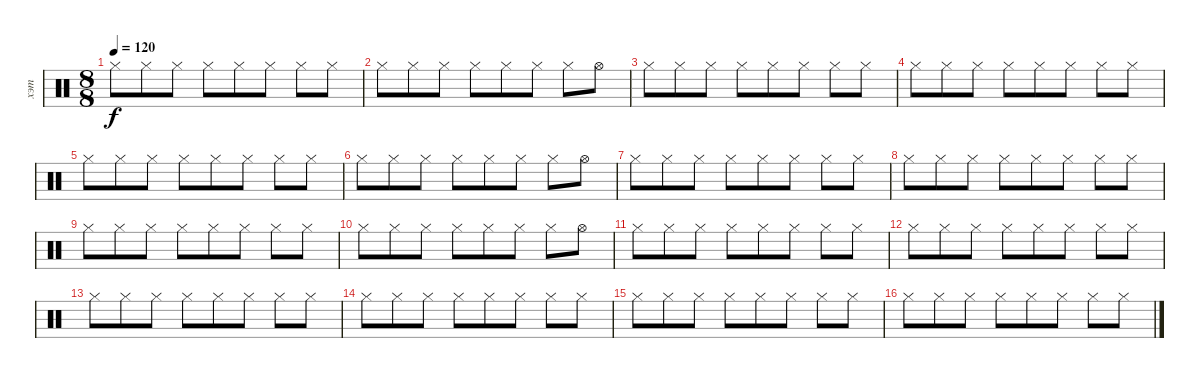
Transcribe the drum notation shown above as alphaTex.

\track ("хэт" "хэт") {instrument percussion}
\staff {score}
\articulation defaults
\ts (8 8)
\tempo 120
\clef neutral
\ks c "Hi-Hat (closed)".8{dy f} "Hi-Hat (closed)".8 "Hi-Hat (closed)".8 "Hi-Hat (closed)".8 "Hi-Hat (closed)".8 "Hi-Hat (closed)".8 "Hi-Hat (closed)".8 "Hi-Hat (closed)".8
|
"Hi-Hat (closed)".8 "Hi-Hat (closed)".8 "Hi-Hat (closed)".8 "Hi-Hat (closed)".8 "Hi-Hat (closed)".8 "Hi-Hat (closed)".8 "Hi-Hat (closed)".8 "Hi-Hat (open)".8 |
"Hi-Hat (closed)".8 "Hi-Hat (closed)".8 "Hi-Hat (closed)".8 "Hi-Hat (closed)".8 "Hi-Hat (closed)".8 "Hi-Hat (closed)".8 "Hi-Hat (closed)".8 "Hi-Hat (closed)".8 |
"Hi-Hat (closed)".8 "Hi-Hat (closed)".8 "Hi-Hat (closed)".8 "Hi-Hat (closed)".8 "Hi-Hat (closed)".8 "Hi-Hat (closed)".8 "Hi-Hat (closed)".8 "Hi-Hat (closed)".8 |
"Hi-Hat (closed)".8 "Hi-Hat (closed)".8 "Hi-Hat (closed)".8 "Hi-Hat (closed)".8 "Hi-Hat (closed)".8 "Hi-Hat (closed)".8 "Hi-Hat (closed)".8 "Hi-Hat (closed)".8 |
"Hi-Hat (closed)".8 "Hi-Hat (closed)".8 "Hi-Hat (closed)".8 "Hi-Hat (closed)".8 "Hi-Hat (closed)".8 "Hi-Hat (closed)".8 "Hi-Hat (closed)".8 "Hi-Hat (open)".8 |
"Hi-Hat (closed)".8 "Hi-Hat (closed)".8 "Hi-Hat (closed)".8 "Hi-Hat (closed)".8 "Hi-Hat (closed)".8 "Hi-Hat (closed)".8 "Hi-Hat (closed)".8 "Hi-Hat (closed)".8 |
"Hi-Hat (closed)".8 "Hi-Hat (closed)".8 "Hi-Hat (closed)".8 "Hi-Hat (closed)".8 "Hi-Hat (closed)".8 "Hi-Hat (closed)".8 "Hi-Hat (closed)".8 "Hi-Hat (closed)".8 |
"Hi-Hat (closed)".8 "Hi-Hat (closed)".8 "Hi-Hat (closed)".8 "Hi-Hat (closed)".8 "Hi-Hat (closed)".8 "Hi-Hat (closed)".8 "Hi-Hat (closed)".8 "Hi-Hat (closed)".8 |
"Hi-Hat (closed)".8 "Hi-Hat (closed)".8 "Hi-Hat (closed)".8 "Hi-Hat (closed)".8 "Hi-Hat (closed)".8 "Hi-Hat (closed)".8 "Hi-Hat (closed)".8 "Hi-Hat (open)".8 |
"Hi-Hat (closed)".8 "Hi-Hat (closed)".8 "Hi-Hat (closed)".8 "Hi-Hat (closed)".8 "Hi-Hat (closed)".8 "Hi-Hat (closed)".8 "Hi-Hat (closed)".8 "Hi-Hat (closed)".8 |
"Hi-Hat (closed)".8 "Hi-Hat (closed)".8 "Hi-Hat (closed)".8 "Hi-Hat (closed)".8 "Hi-Hat (closed)".8 "Hi-Hat (closed)".8 "Hi-Hat (closed)".8 "Hi-Hat (closed)".8 |
"Hi-Hat (closed)".8 "Hi-Hat (closed)".8 "Hi-Hat (closed)".8 "Hi-Hat (closed)".8 "Hi-Hat (closed)".8 "Hi-Hat (closed)".8 "Hi-Hat (closed)".8 "Hi-Hat (closed)".8 |
"Hi-Hat (closed)".8 "Hi-Hat (closed)".8 "Hi-Hat (closed)".8 "Hi-Hat (closed)".8 "Hi-Hat (closed)".8 "Hi-Hat (closed)".8 "Hi-Hat (closed)".8 "Hi-Hat (closed)".8 |
"Hi-Hat (closed)".8 "Hi-Hat (closed)".8 "Hi-Hat (closed)".8 "Hi-Hat (closed)".8 "Hi-Hat (closed)".8 "Hi-Hat (closed)".8 "Hi-Hat (closed)".8 "Hi-Hat (closed)".8 |
"Hi-Hat (closed)".8 "Hi-Hat (closed)".8 "Hi-Hat (closed)".8 "Hi-Hat (closed)".8 "Hi-Hat (closed)".8 "Hi-Hat (closed)".8 "Hi-Hat (closed)".8 "Hi-Hat (closed)".8
